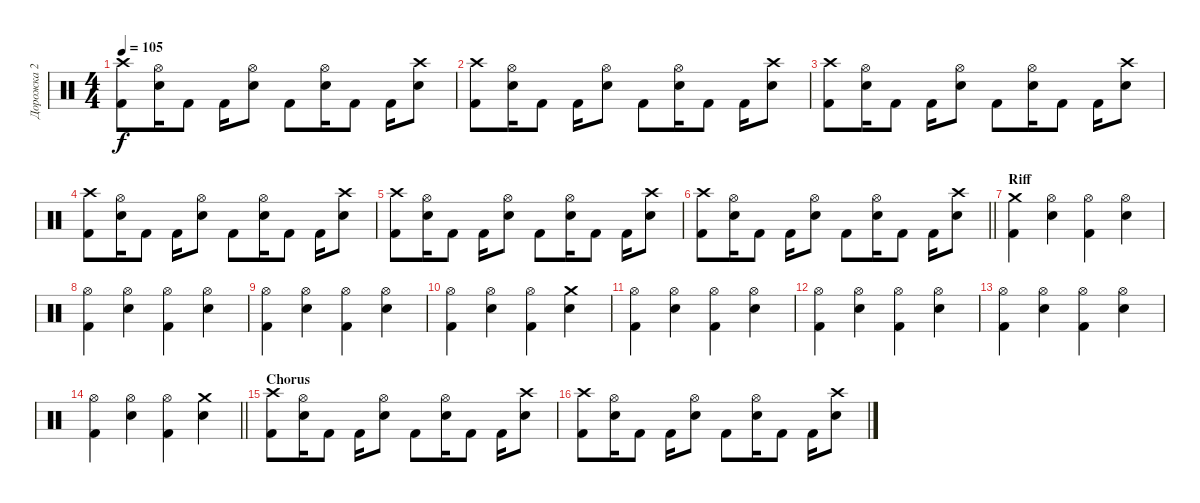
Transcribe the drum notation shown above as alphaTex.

\track ("Дорожка 2" "Дорожка 2") {instrument percussion}
\staff {score}
\articulation defaults
\ts (4 4)
\tempo 105
\clef neutral
\ks c
("Kick (hit) 2" "Crash high (hit)").8{dy f} ("Snare (hit) 2" "Hi-Hat (open)").16 "Kick (hit) 2".8 "Kick (hit) 2".16 ("Snare (hit) 2" "Hi-Hat (open)").8 "Kick (hit) 2".8 ("Snare (hit) 2" "Hi-Hat (open)").16 "Kick (hit) 2".8 "Kick (hit) 2".16 ("Snare (hit) 2" "Crash high (hit)").8 |
("Kick (hit) 2" "Crash high (hit)").8 ("Snare (hit) 2" "Hi-Hat (open)").16 "Kick (hit) 2".8 "Kick (hit) 2".16 ("Snare (hit) 2" "Hi-Hat (open)").8 "Kick (hit) 2".8 ("Snare (hit) 2" "Hi-Hat (open)").16 "Kick (hit) 2".8 "Kick (hit) 2".16 ("Snare (hit) 2" "Crash high (hit)").8 |
("Kick (hit) 2" "Crash high (hit)").8 ("Snare (hit) 2" "Hi-Hat (open)").16 "Kick (hit) 2".8 "Kick (hit) 2".16 ("Snare (hit) 2" "Hi-Hat (open)").8 "Kick (hit) 2".8 ("Snare (hit) 2" "Hi-Hat (open)").16 "Kick (hit) 2".8 "Kick (hit) 2".16 ("Snare (hit) 2" "Crash high (hit)").8 |
("Kick (hit) 2" "Crash high (hit)").8 ("Snare (hit) 2" "Hi-Hat (open)").16 "Kick (hit) 2".8 "Kick (hit) 2".16 ("Snare (hit) 2" "Hi-Hat (open)").8 "Kick (hit) 2".8 ("Snare (hit) 2" "Hi-Hat (open)").16 "Kick (hit) 2".8 "Kick (hit) 2".16 ("Snare (hit) 2" "Crash high (hit)").8 |
("Kick (hit) 2" "Crash high (hit)").8 ("Snare (hit) 2" "Hi-Hat (open)").16 "Kick (hit) 2".8 "Kick (hit) 2".16 ("Snare (hit) 2" "Hi-Hat (open)").8 "Kick (hit) 2".8 ("Snare (hit) 2" "Hi-Hat (open)").16 "Kick (hit) 2".8 "Kick (hit) 2".16 ("Snare (hit) 2" "Crash high (hit)").8 |
\barLineRight lightlight
("Kick (hit) 2" "Crash high (hit)").8 ("Snare (hit) 2" "Hi-Hat (open)").16 "Kick (hit) 2".8 "Kick (hit) 2".16 ("Snare (hit) 2" "Hi-Hat (open)").8 "Kick (hit) 2".8 ("Snare (hit) 2" "Hi-Hat (open)").16 "Kick (hit) 2".8 "Kick (hit) 2".16 ("Snare (hit) 2" "Crash high (hit)").8 |
\section ("" "Riff")
("Crash medium (hit)" "Kick (hit) 2").4 ("Snare (hit) 2" "Hi-Hat (open)").4 ("Hi-Hat (open)" "Kick (hit) 2").4 ("Snare (hit) 2" "Hi-Hat (open)").4 |
("Hi-Hat (open)" "Kick (hit) 2").4 ("Snare (hit) 2" "Hi-Hat (open)").4 ("Hi-Hat (open)" "Kick (hit) 2").4 ("Snare (hit) 2" "Hi-Hat (open)").4 |
("Hi-Hat (open)" "Kick (hit) 2").4 ("Snare (hit) 2" "Hi-Hat (open)").4 ("Hi-Hat (open)" "Kick (hit) 2").4 ("Snare (hit) 2" "Hi-Hat (open)").4 |
("Hi-Hat (open)" "Kick (hit) 2").4 ("Snare (hit) 2" "Hi-Hat (open)").4 ("Hi-Hat (open)" "Kick (hit) 2").4 ("Snare (hit) 2" "Crash medium (hit)").4 |
("Hi-Hat (open)" "Kick (hit) 2").4 ("Snare (hit) 2" "Hi-Hat (open)").4 ("Hi-Hat (open)" "Kick (hit) 2").4 ("Snare (hit) 2" "Hi-Hat (open)").4 |
("Hi-Hat (open)" "Kick (hit) 2").4 ("Snare (hit) 2" "Hi-Hat (open)").4 ("Hi-Hat (open)" "Kick (hit) 2").4 ("Snare (hit) 2" "Hi-Hat (open)").4 |
("Hi-Hat (open)" "Kick (hit) 2").4 ("Snare (hit) 2" "Hi-Hat (open)").4 ("Hi-Hat (open)" "Kick (hit) 2").4 ("Snare (hit) 2" "Hi-Hat (open)").4 |
\barLineRight lightlight
("Hi-Hat (open)" "Kick (hit) 2").4 ("Snare (hit) 2" "Hi-Hat (open)").4 ("Hi-Hat (open)" "Kick (hit) 2").4 ("Snare (hit) 2" "Crash medium (hit)").4 |
\section ("" "Chorus")
("Kick (hit) 2" "Crash high (hit)").8 ("Snare (hit) 2" "Hi-Hat (open)").16 "Kick (hit) 2".8 "Kick (hit) 2".16 ("Snare (hit) 2" "Hi-Hat (open)").8 "Kick (hit) 2".8 ("Snare (hit) 2" "Hi-Hat (open)").16 "Kick (hit) 2".8 "Kick (hit) 2".16 ("Snare (hit) 2" "Crash high (hit)").8 |
("Kick (hit) 2" "Crash high (hit)").8 ("Snare (hit) 2" "Hi-Hat (open)").16 "Kick (hit) 2".8 "Kick (hit) 2".16 ("Snare (hit) 2" "Hi-Hat (open)").8 "Kick (hit) 2".8 ("Snare (hit) 2" "Hi-Hat (open)").16 "Kick (hit) 2".8 "Kick (hit) 2".16 ("Snare (hit) 2" "Crash high (hit)").8
